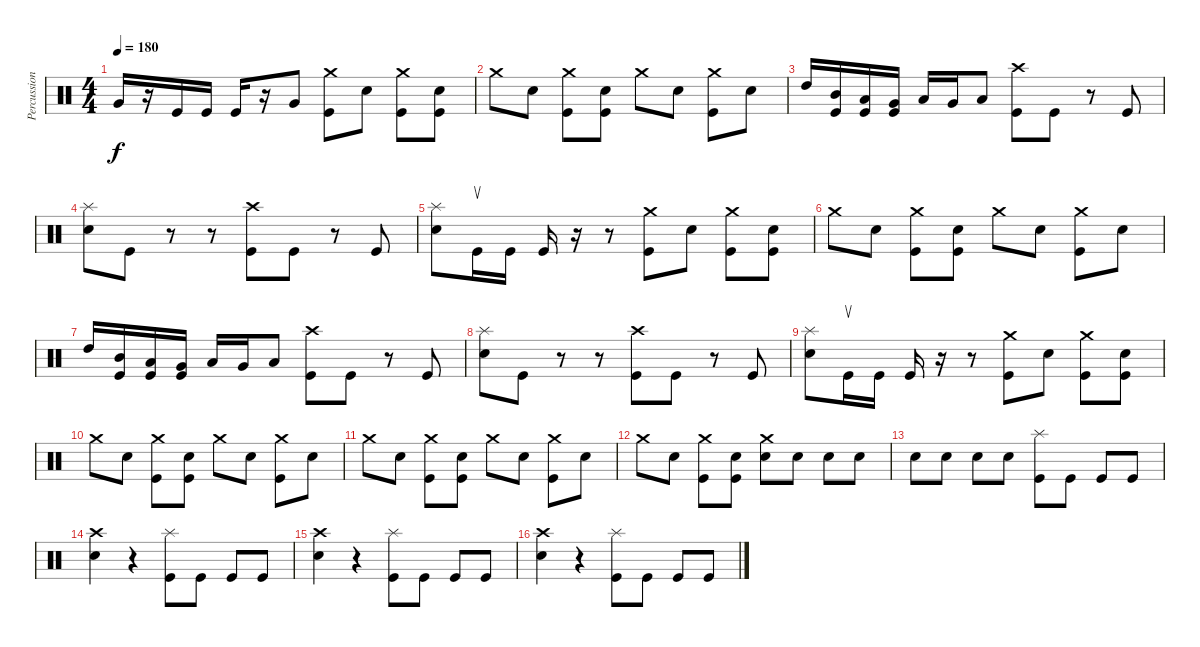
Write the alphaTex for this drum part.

\track ("Percussion" "Percussion") {instrument percussion}
\staff {score}
\articulation defaults
\ts (4 4)
\tempo 180
\clef neutral
\ks c "Very Low Tom (hit)".16{dy f}
r.16 "Kick (hit)".16 "Kick (hit)".16 "Kick (hit)".16 r.16 "Very Low Tom (hit)".8 ("Crash medium (hit)" "Kick (hit)").8 "Snare (hit) 2".8 ("Crash medium (hit)" "Kick (hit)").8 ("Snare (hit) 2" "Kick (hit)").8 |
"Crash medium (hit)".8 "Snare (hit) 2".8 ("Crash medium (hit)" "Kick (hit)").8 ("Snare (hit) 2" "Kick (hit)").8 "Crash medium (hit)".8 "Snare (hit) 2".8 ("Crash medium (hit)" "Kick (hit)").8 "Snare (hit) 2".8 |
"High Tom (hit)".16 ("Mid Tom (hit)" "Kick (hit)").16 ("Low Tom (hit)" "Kick (hit)").16 ("Very Low Tom (hit)" "Kick (hit)").16 "Low Floor Tom (hit)".16 "Very Low Tom (hit)".16 "Low Floor Tom (hit)".8 ("Crash high (hit)" "Kick (hit)").8 "Kick (hit)".8 r.8 "Kick (hit)".8 |
("Splash (hit)" "Snare (hit) 2").8 "Kick (hit)".8 r.8 r.8 ("Crash high (hit)" "Kick (hit)").8 "Kick (hit)".8 r.8 "Kick (hit)".8 |
("Splash (hit)" "Snare (hit) 2").8 "Kick (hit)".16{su} "Kick (hit)".16 "Kick (hit)".16 r.16 r.8 ("Crash medium (hit)" "Kick (hit)").8 "Snare (hit) 2".8 ("Crash medium (hit)" "Kick (hit)").8 ("Snare (hit) 2" "Kick (hit)").8 |
"Crash medium (hit)".8 "Snare (hit) 2".8 ("Crash medium (hit)" "Kick (hit)").8 ("Snare (hit) 2" "Kick (hit)").8 "Crash medium (hit)".8 "Snare (hit) 2".8 ("Crash medium (hit)" "Kick (hit)").8 "Snare (hit) 2".8 |
"High Tom (hit)".16 ("Mid Tom (hit)" "Kick (hit)").16 ("Low Tom (hit)" "Kick (hit)").16 ("Very Low Tom (hit)" "Kick (hit)").16 "Low Floor Tom (hit)".16 "Very Low Tom (hit)".16 "Low Floor Tom (hit)".8 ("Crash high (hit)" "Kick (hit)").8 "Kick (hit)".8 r.8 "Kick (hit)".8 |
("Splash (hit)" "Snare (hit) 2").8 "Kick (hit)".8 r.8 r.8 ("Crash high (hit)" "Kick (hit)").8 "Kick (hit)".8 r.8 "Kick (hit)".8 |
("Splash (hit)" "Snare (hit) 2").8 "Kick (hit)".16{su} "Kick (hit)".16 "Kick (hit)".16 r.16 r.8 ("Crash medium (hit)" "Kick (hit)").8 "Snare (hit) 2".8 ("Crash medium (hit)" "Kick (hit)").8 ("Snare (hit) 2" "Kick (hit)").8 |
"Crash medium (hit)".8 "Snare (hit) 2".8 ("Crash medium (hit)" "Kick (hit)").8 ("Snare (hit) 2" "Kick (hit)").8 "Crash medium (hit)".8 "Snare (hit) 2".8 ("Crash medium (hit)" "Kick (hit)").8 "Snare (hit) 2".8 |
"Crash medium (hit)".8 "Snare (hit) 2".8 ("Crash medium (hit)" "Kick (hit)").8 ("Snare (hit) 2" "Kick (hit)").8 "Crash medium (hit)".8 "Snare (hit) 2".8 ("Crash medium (hit)" "Kick (hit)").8 "Snare (hit) 2".8 |
"Crash medium (hit)".8 "Snare (hit) 2".8 ("Crash medium (hit)" "Kick (hit)").8 ("Snare (hit) 2" "Kick (hit)").8 ("Crash medium (hit)" "Snare (hit) 2").8 "Snare (hit) 2".8 "Snare (hit) 2".8 "Snare (hit) 2".8 |
"Snare (hit) 2".8 "Snare (hit) 2".8 "Snare (hit) 2".8 "Snare (hit) 2".8 ("Splash (hit)" "Kick (hit)").8 "Kick (hit)".8 "Kick (hit)".8 "Kick (hit)".8 |
("Crash high (hit)" "Snare (hit) 2").4 r.4 ("Splash (hit)" "Kick (hit)").8 "Kick (hit)".8 "Kick (hit)".8 "Kick (hit)".8 |
("Crash high (hit)" "Snare (hit) 2").4 r.4 ("Splash (hit)" "Kick (hit)").8 "Kick (hit)".8 "Kick (hit)".8 "Kick (hit)".8 |
("Crash high (hit)" "Snare (hit) 2").4 r.4 ("Splash (hit)" "Kick (hit)").8 "Kick (hit)".8 "Kick (hit)".8 "Kick (hit)".8
